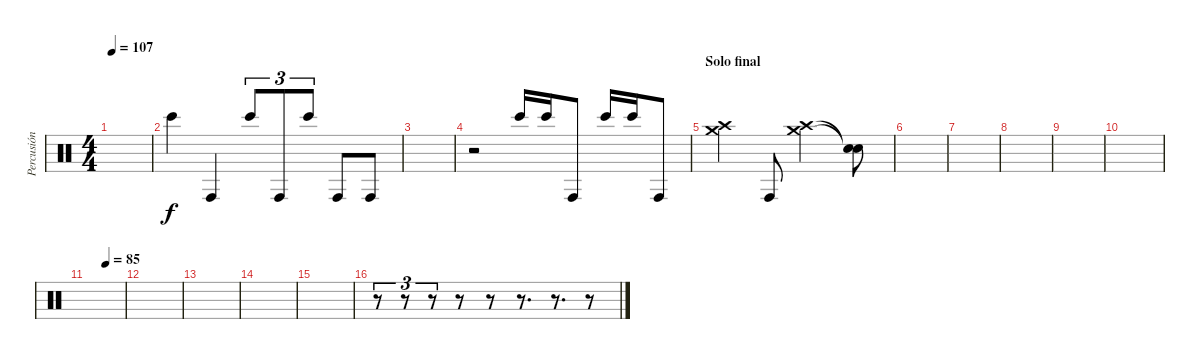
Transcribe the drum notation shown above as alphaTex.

\track ("Percusión" "Percusión") {instrument percussion}
\staff {score}
\articulation defaults
\ts (4 4)
\tempo 107
\clef neutral
\ks c
|
"Bongo High (hit)".4 "Conga high (hit)".4 "Bongo High (hit)".8{tu (3 2)} "Conga high (hit)".8{tu (3 2)} "Bongo High (hit)".8{tu (3 2)} "Conga high (hit)".8 "Conga high (hit)".8 |
|
r.2 "Bongo High (hit)".16 "Bongo High (hit)".16 "Conga high (hit)".8 "Bongo High (hit)".16 "Bongo High (hit)".16 "Conga high (hit)".8 |
\section ("" "Solo final")
("Crash medium (hit)" "Crash high (hit)").4 "Conga high (hit)".8 ("Crash medium (hit)" "Crash high (hit)").2 ("Snare (hit)"{t} "Snare (hit)"{t}).8 |
|
|
|
|
|
\tempo (85 0.5)
|
|
|
|
|
r.8{tu (3 2)} r.8{tu (3 2)} r.8{tu (3 2)} r.8 r.8 r.8{d} r.8{d} r.8
